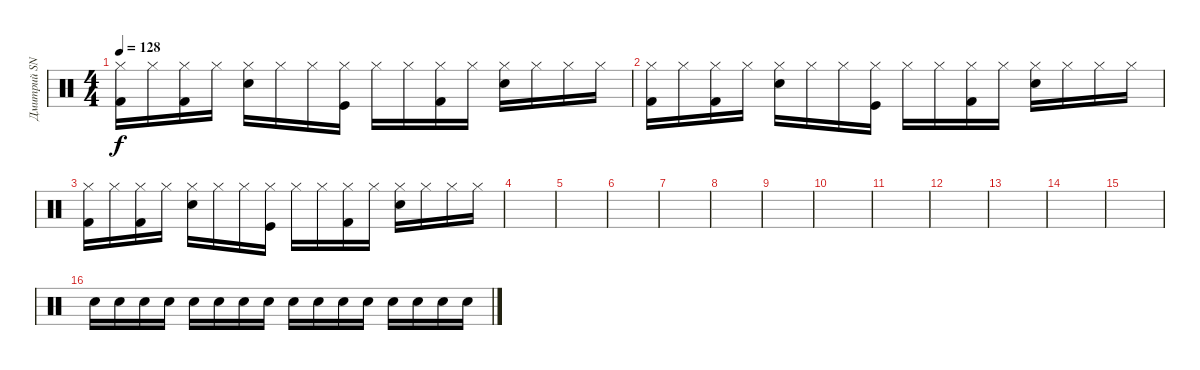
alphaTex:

\track ("Дмитрий SNAKE Хакимов (ударные)" "Дмитрий SN") {instrument percussion}
\staff {score}
\articulation defaults
\ts (4 4)
\tempo 128
\clef neutral
\ks c
("Hi-Hat (closed)" "Kick (hit) 2").16{dy f} "Hi-Hat (closed)".16 ("Hi-Hat (closed)" "Kick (hit) 2").16 "Hi-Hat (closed)".16 ("Hi-Hat (closed)" "Snare (hit) 2").16 "Hi-Hat (closed)".16 "Hi-Hat (closed)".16 ("Hi-Hat (closed)" "Kick (hit)").16 "Hi-Hat (closed)".16 "Hi-Hat (closed)".16 ("Hi-Hat (closed)" "Kick (hit) 2").16 "Hi-Hat (closed)".16 ("Hi-Hat (closed)" "Snare (hit) 2").16 "Hi-Hat (closed)".16 "Hi-Hat (closed)".16 "Hi-Hat (closed)".16 |
("Hi-Hat (closed)" "Kick (hit) 2").16 "Hi-Hat (closed)".16 ("Hi-Hat (closed)" "Kick (hit) 2").16 "Hi-Hat (closed)".16 ("Hi-Hat (closed)" "Snare (hit) 2").16 "Hi-Hat (closed)".16 "Hi-Hat (closed)".16 ("Hi-Hat (closed)" "Kick (hit)").16 "Hi-Hat (closed)".16 "Hi-Hat (closed)".16 ("Hi-Hat (closed)" "Kick (hit) 2").16 "Hi-Hat (closed)".16 ("Hi-Hat (closed)" "Snare (hit) 2").16 "Hi-Hat (closed)".16 "Hi-Hat (closed)".16 "Hi-Hat (closed)".16 |
("Hi-Hat (closed)" "Kick (hit) 2").16 "Hi-Hat (closed)".16 ("Hi-Hat (closed)" "Kick (hit) 2").16 "Hi-Hat (closed)".16 ("Hi-Hat (closed)" "Snare (hit) 2").16 "Hi-Hat (closed)".16 "Hi-Hat (closed)".16 ("Hi-Hat (closed)" "Kick (hit)").16 "Hi-Hat (closed)".16 "Hi-Hat (closed)".16 ("Hi-Hat (closed)" "Kick (hit) 2").16 "Hi-Hat (closed)".16 ("Hi-Hat (closed)" "Snare (hit) 2").16 "Hi-Hat (closed)".16 "Hi-Hat (closed)".16 "Hi-Hat (closed)".16 |
|
|
|
|
|
|
|
|
|
|
|
|
"Snare (hit) 2".16 "Snare (hit) 2".16 "Snare (hit) 2".16 "Snare (hit) 2".16 "Snare (hit) 2".16 "Snare (hit) 2".16 "Snare (hit) 2".16 "Snare (hit) 2".16 "Snare (hit) 2".16 "Snare (hit) 2".16 "Snare (hit) 2".16 "Snare (hit) 2".16 "Snare (hit) 2".16 "Snare (hit) 2".16 "Snare (hit) 2".16 "Snare (hit) 2".16
